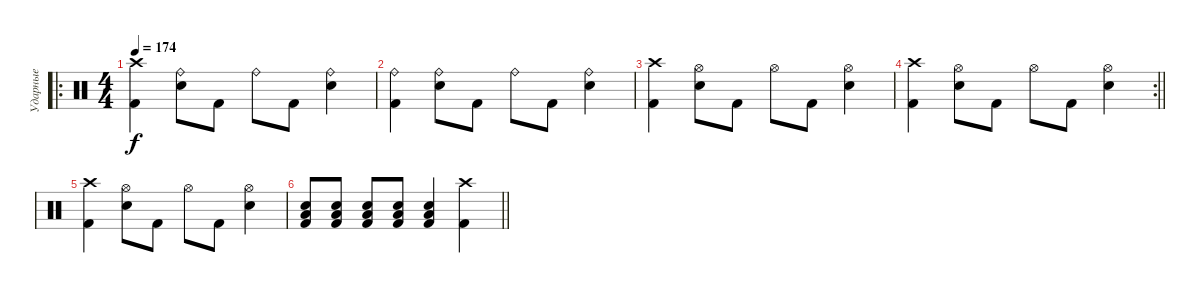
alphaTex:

\track ("Ударные" "Ударные") {instrument percussion}
\staff {score}
\articulation defaults
\ro
\ts (4 4)
\tempo 174
\clef neutral
\ks c
("Crash high (hit)" "Kick (hit) 2").4{dy f} ("Ride (bell)" "Electric Snare (hit)").8 "Kick (hit) 2".8 "Ride (bell)".8 "Kick (hit) 2".8 ("Ride (bell)" "Electric Snare (hit)").4 |
("Ride (bell)" "Kick (hit) 2").4 ("Ride (bell)" "Electric Snare (hit)").8 "Kick (hit) 2".8 "Ride (bell)".8 "Kick (hit) 2".8 ("Ride (bell)" "Electric Snare (hit)").4 |
("Crash high (hit)" "Kick (hit) 2").4 ("Hi-Hat (open)" "Electric Snare (hit)").8 "Kick (hit) 2".8 "Hi-Hat (open)".8 "Kick (hit) 2".8 ("Hi-Hat (open)" "Electric Snare (hit)").4 |
\rc 2
\barLineRight lightlight
("Crash high (hit)" "Kick (hit) 2").4 ("Hi-Hat (open)" "Electric Snare (hit)").8 "Kick (hit) 2".8 "Hi-Hat (open)".8 "Kick (hit) 2".8 ("Hi-Hat (open)" "Electric Snare (hit)").4 |
("Crash high (hit)" "Kick (hit) 2").4 ("Hi-Hat (open)" "Electric Snare (hit)").8 "Kick (hit) 2".8 "Hi-Hat (open)".8 "Kick (hit) 2".8 ("Hi-Hat (open)" "Electric Snare (hit)").4 |
\barLineRight lightlight
("Low Tom (hit)" "Electric Snare (hit)" "Kick (hit) 2").8 ("Low Tom (hit)" "Electric Snare (hit)" "Kick (hit) 2").8 ("Low Tom (hit)" "Electric Snare (hit)" "Kick (hit) 2").8 ("Low Tom (hit)" "Electric Snare (hit)" "Kick (hit) 2").8 ("Low Tom (hit)" "Electric Snare (hit)" "Kick (hit) 2").4 ("Crash high (hit)" "Kick (hit) 2").4
